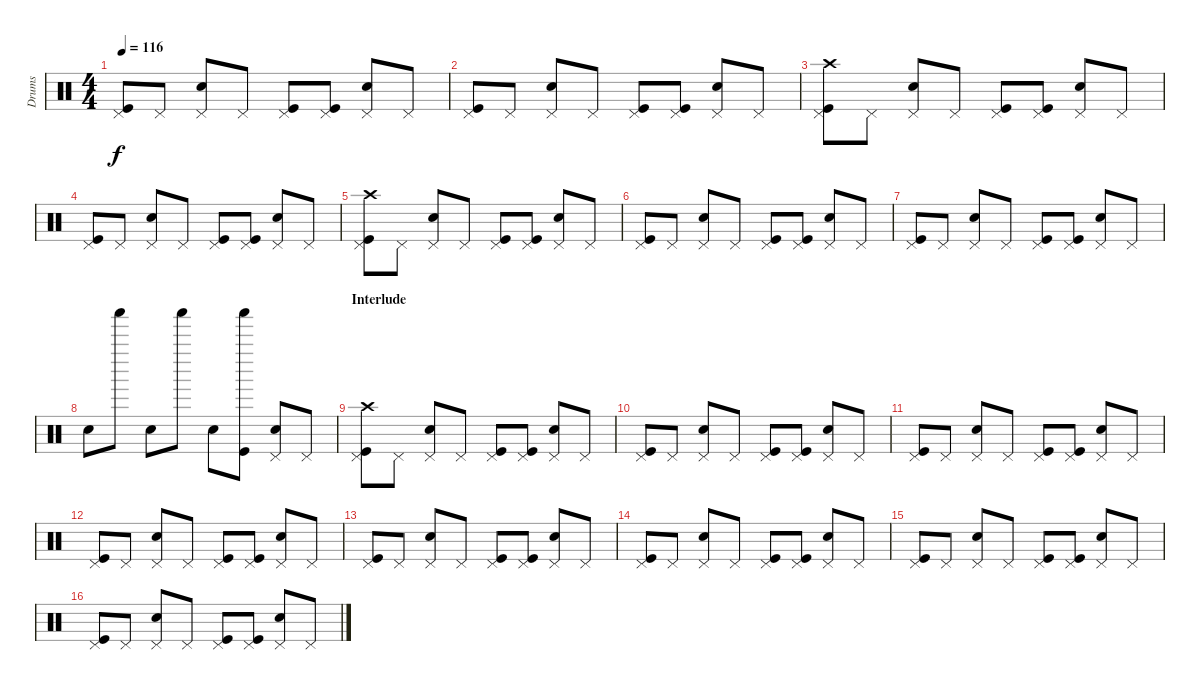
\track ("Drums" "Drums") {instrument percussion}
\staff {score}
\articulation defaults
\ts (4 4)
\tempo 116
\clef neutral
\ks c
("Pedal Hi-Hat (hit)" "Kick (hit)").8{dy f} "Pedal Hi-Hat (hit)".8 ("Pedal Hi-Hat (hit)" "Snare (hit) 2").8 "Pedal Hi-Hat (hit)".8 ("Pedal Hi-Hat (hit)" "Kick (hit)").8 ("Pedal Hi-Hat (hit)" "Kick (hit)").8 ("Pedal Hi-Hat (hit)" "Snare (hit) 2").8 "Pedal Hi-Hat (hit)".8 |
("Pedal Hi-Hat (hit)" "Kick (hit)").8 "Pedal Hi-Hat (hit)".8 ("Pedal Hi-Hat (hit)" "Snare (hit) 2").8 "Pedal Hi-Hat (hit)".8 ("Pedal Hi-Hat (hit)" "Kick (hit)").8 ("Pedal Hi-Hat (hit)" "Kick (hit)").8 ("Pedal Hi-Hat (hit)" "Snare (hit) 2").8 "Pedal Hi-Hat (hit)".8 |
("Pedal Hi-Hat (hit)" "Crash high (hit)" "Kick (hit)").8 "Pedal Hi-Hat (hit)".8 ("Pedal Hi-Hat (hit)" "Snare (hit) 2").8 "Pedal Hi-Hat (hit)".8 ("Pedal Hi-Hat (hit)" "Kick (hit)").8 ("Pedal Hi-Hat (hit)" "Kick (hit)").8 ("Pedal Hi-Hat (hit)" "Snare (hit) 2").8 "Pedal Hi-Hat (hit)".8 |
("Pedal Hi-Hat (hit)" "Kick (hit)").8 "Pedal Hi-Hat (hit)".8 ("Pedal Hi-Hat (hit)" "Snare (hit) 2").8 "Pedal Hi-Hat (hit)".8 ("Pedal Hi-Hat (hit)" "Kick (hit)").8 ("Pedal Hi-Hat (hit)" "Kick (hit)").8 ("Pedal Hi-Hat (hit)" "Snare (hit) 2").8 "Pedal Hi-Hat (hit)".8 |
("Pedal Hi-Hat (hit)" "Crash high (hit)" "Kick (hit)").8 "Pedal Hi-Hat (hit)".8 ("Pedal Hi-Hat (hit)" "Snare (hit) 2").8 "Pedal Hi-Hat (hit)".8 ("Pedal Hi-Hat (hit)" "Kick (hit)").8 ("Pedal Hi-Hat (hit)" "Kick (hit)").8 ("Pedal Hi-Hat (hit)" "Snare (hit) 2").8 "Pedal Hi-Hat (hit)".8 |
("Pedal Hi-Hat (hit)" "Kick (hit)").8 "Pedal Hi-Hat (hit)".8 ("Pedal Hi-Hat (hit)" "Snare (hit) 2").8 "Pedal Hi-Hat (hit)".8 ("Pedal Hi-Hat (hit)" "Kick (hit)").8 ("Pedal Hi-Hat (hit)" "Kick (hit)").8 ("Pedal Hi-Hat (hit)" "Snare (hit) 2").8 "Pedal Hi-Hat (hit)".8 |
("Pedal Hi-Hat (hit)" "Kick (hit)").8 "Pedal Hi-Hat (hit)".8 ("Pedal Hi-Hat (hit)" "Snare (hit) 2").8 "Pedal Hi-Hat (hit)".8 ("Pedal Hi-Hat (hit)" "Kick (hit)").8 ("Pedal Hi-Hat (hit)" "Kick (hit)").8 ("Pedal Hi-Hat (hit)" "Snare (hit) 2").8 "Pedal Hi-Hat (hit)".8 |
"Snare (hit) 2".8 "Shaker (hit)".8 "Snare (hit) 2".8 "Shaker (hit)".8 "Snare (hit) 2".8 ("Shaker (hit)" "Kick (hit)").8 ("Pedal Hi-Hat (hit)" "Snare (hit) 2").8 "Pedal Hi-Hat (hit)".8 |
\section ("" "Interlude")
("Pedal Hi-Hat (hit)" "Crash high (hit)" "Kick (hit)").8 "Pedal Hi-Hat (hit)".8 ("Pedal Hi-Hat (hit)" "Snare (hit) 2").8 "Pedal Hi-Hat (hit)".8 ("Pedal Hi-Hat (hit)" "Kick (hit)").8 ("Pedal Hi-Hat (hit)" "Kick (hit)").8 ("Pedal Hi-Hat (hit)" "Snare (hit) 2").8 "Pedal Hi-Hat (hit)".8 |
("Pedal Hi-Hat (hit)" "Kick (hit)").8 "Pedal Hi-Hat (hit)".8 ("Pedal Hi-Hat (hit)" "Snare (hit) 2").8 "Pedal Hi-Hat (hit)".8 ("Pedal Hi-Hat (hit)" "Kick (hit)").8 ("Pedal Hi-Hat (hit)" "Kick (hit)").8 ("Pedal Hi-Hat (hit)" "Snare (hit) 2").8 "Pedal Hi-Hat (hit)".8 |
("Pedal Hi-Hat (hit)" "Kick (hit)").8 "Pedal Hi-Hat (hit)".8 ("Pedal Hi-Hat (hit)" "Snare (hit) 2").8 "Pedal Hi-Hat (hit)".8 ("Pedal Hi-Hat (hit)" "Kick (hit)").8 ("Pedal Hi-Hat (hit)" "Kick (hit)").8 ("Pedal Hi-Hat (hit)" "Snare (hit) 2").8 "Pedal Hi-Hat (hit)".8 |
("Pedal Hi-Hat (hit)" "Kick (hit)").8 "Pedal Hi-Hat (hit)".8 ("Pedal Hi-Hat (hit)" "Snare (hit) 2").8 "Pedal Hi-Hat (hit)".8 ("Pedal Hi-Hat (hit)" "Kick (hit)").8 ("Pedal Hi-Hat (hit)" "Kick (hit)").8 ("Pedal Hi-Hat (hit)" "Snare (hit) 2").8 "Pedal Hi-Hat (hit)".8 |
("Pedal Hi-Hat (hit)" "Kick (hit)").8 "Pedal Hi-Hat (hit)".8 ("Pedal Hi-Hat (hit)" "Snare (hit) 2").8 "Pedal Hi-Hat (hit)".8 ("Pedal Hi-Hat (hit)" "Kick (hit)").8 ("Pedal Hi-Hat (hit)" "Kick (hit)").8 ("Pedal Hi-Hat (hit)" "Snare (hit) 2").8 "Pedal Hi-Hat (hit)".8 |
("Pedal Hi-Hat (hit)" "Kick (hit)").8 "Pedal Hi-Hat (hit)".8 ("Pedal Hi-Hat (hit)" "Snare (hit) 2").8 "Pedal Hi-Hat (hit)".8 ("Pedal Hi-Hat (hit)" "Kick (hit)").8 ("Pedal Hi-Hat (hit)" "Kick (hit)").8 ("Pedal Hi-Hat (hit)" "Snare (hit) 2").8 "Pedal Hi-Hat (hit)".8 |
("Pedal Hi-Hat (hit)" "Kick (hit)").8 "Pedal Hi-Hat (hit)".8 ("Pedal Hi-Hat (hit)" "Snare (hit) 2").8 "Pedal Hi-Hat (hit)".8 ("Pedal Hi-Hat (hit)" "Kick (hit)").8 ("Pedal Hi-Hat (hit)" "Kick (hit)").8 ("Pedal Hi-Hat (hit)" "Snare (hit) 2").8 "Pedal Hi-Hat (hit)".8 |
("Pedal Hi-Hat (hit)" "Kick (hit)").8 "Pedal Hi-Hat (hit)".8 ("Pedal Hi-Hat (hit)" "Snare (hit) 2").8 "Pedal Hi-Hat (hit)".8 ("Pedal Hi-Hat (hit)" "Kick (hit)").8 ("Pedal Hi-Hat (hit)" "Kick (hit)").8 ("Pedal Hi-Hat (hit)" "Snare (hit) 2").8 "Pedal Hi-Hat (hit)".8
